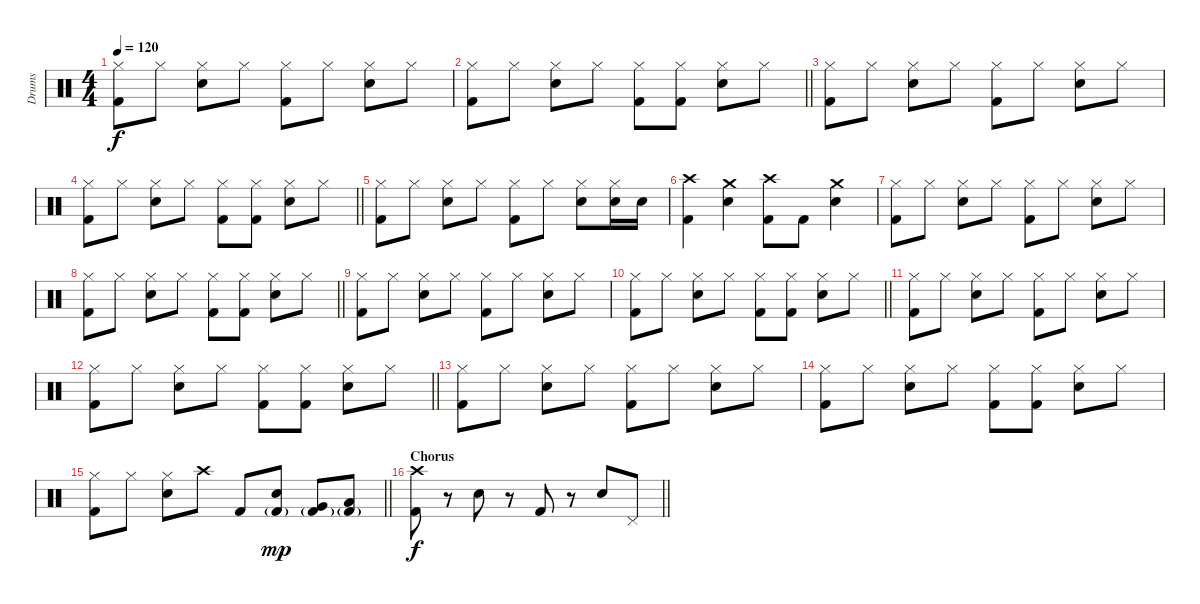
\track ("Drums" "Drums") {instrument percussion}
\staff {score}
\articulation defaults
\ts (4 4)
\tempo 120
\clef neutral
\ks c
("Hi-Hat (closed)" "Kick (hit) 2").8{dy f} "Hi-Hat (closed)".8 ("Hi-Hat (closed)" "Snare (hit) 2").8 "Hi-Hat (closed)".8 ("Hi-Hat (closed)" "Kick (hit) 2").8 "Hi-Hat (closed)".8 ("Hi-Hat (closed)" "Snare (hit) 2").8 "Hi-Hat (closed)".8 |
\barLineRight lightlight
("Hi-Hat (closed)" "Kick (hit) 2").8 "Hi-Hat (closed)".8 ("Hi-Hat (closed)" "Snare (hit) 2").8 "Hi-Hat (closed)".8 ("Hi-Hat (closed)" "Kick (hit) 2").8 ("Hi-Hat (closed)" "Kick (hit) 2").8 ("Hi-Hat (closed)" "Snare (hit) 2").8 "Hi-Hat (closed)".8 |
("Hi-Hat (closed)" "Kick (hit) 2").8 "Hi-Hat (closed)".8 ("Hi-Hat (closed)" "Snare (hit) 2").8 "Hi-Hat (closed)".8 ("Hi-Hat (closed)" "Kick (hit) 2").8 "Hi-Hat (closed)".8 ("Hi-Hat (closed)" "Snare (hit) 2").8 "Hi-Hat (closed)".8 |
\barLineRight lightlight
("Hi-Hat (closed)" "Kick (hit) 2").8 "Hi-Hat (closed)".8 ("Hi-Hat (closed)" "Snare (hit) 2").8 "Hi-Hat (closed)".8 ("Hi-Hat (closed)" "Kick (hit) 2").8 ("Hi-Hat (closed)" "Kick (hit) 2").8 ("Hi-Hat (closed)" "Snare (hit) 2").8 "Hi-Hat (closed)".8 |
("Hi-Hat (closed)" "Kick (hit) 2").8 "Hi-Hat (closed)".8 ("Hi-Hat (closed)" "Snare (hit) 2").8 "Hi-Hat (closed)".8 ("Hi-Hat (closed)" "Kick (hit) 2").8 "Hi-Hat (closed)".8 ("Hi-Hat (closed)" "Snare (hit) 2").8 ("Hi-Hat (closed)" "Snare (hit) 2").16 "Snare (hit) 2".16 |
("Crash high (hit)" "Kick (hit) 2").4 ("Crash medium (hit)" "Snare (hit) 2").4 ("Crash high (hit)" "Kick (hit) 2").8 "Kick (hit) 2".8 ("Crash medium (hit)" "Snare (hit) 2").4 |
("Hi-Hat (closed)" "Kick (hit) 2").8 "Hi-Hat (closed)".8 ("Hi-Hat (closed)" "Snare (hit) 2").8 "Hi-Hat (closed)".8 ("Hi-Hat (closed)" "Kick (hit) 2").8 "Hi-Hat (closed)".8 ("Hi-Hat (closed)" "Snare (hit) 2").8 "Hi-Hat (closed)".8 |
\barLineRight lightlight
("Hi-Hat (closed)" "Kick (hit) 2").8 "Hi-Hat (closed)".8 ("Hi-Hat (closed)" "Snare (hit) 2").8 "Hi-Hat (closed)".8 ("Hi-Hat (closed)" "Kick (hit) 2").8 ("Hi-Hat (closed)" "Kick (hit) 2").8 ("Hi-Hat (closed)" "Snare (hit) 2").8 "Hi-Hat (closed)".8 |
("Hi-Hat (closed)" "Kick (hit) 2").8 "Hi-Hat (closed)".8 ("Hi-Hat (closed)" "Snare (hit) 2").8 "Hi-Hat (closed)".8 ("Hi-Hat (closed)" "Kick (hit) 2").8 "Hi-Hat (closed)".8 ("Hi-Hat (closed)" "Snare (hit) 2").8 "Hi-Hat (closed)".8 |
\barLineRight lightlight
("Hi-Hat (closed)" "Kick (hit) 2").8 "Hi-Hat (closed)".8 ("Hi-Hat (closed)" "Snare (hit) 2").8 "Hi-Hat (closed)".8 ("Hi-Hat (closed)" "Kick (hit) 2").8 ("Hi-Hat (closed)" "Kick (hit) 2").8 ("Hi-Hat (closed)" "Snare (hit) 2").8 "Hi-Hat (closed)".8 |
("Hi-Hat (closed)" "Kick (hit) 2").8 "Hi-Hat (closed)".8 ("Hi-Hat (closed)" "Snare (hit) 2").8 "Hi-Hat (closed)".8 ("Hi-Hat (closed)" "Kick (hit) 2").8 "Hi-Hat (closed)".8 ("Hi-Hat (closed)" "Snare (hit) 2").8 "Hi-Hat (closed)".8 |
\barLineRight lightlight
("Hi-Hat (closed)" "Kick (hit) 2").8 "Hi-Hat (closed)".8 ("Hi-Hat (closed)" "Snare (hit) 2").8 "Hi-Hat (closed)".8 ("Hi-Hat (closed)" "Kick (hit) 2").8 ("Hi-Hat (closed)" "Kick (hit) 2").8 ("Hi-Hat (closed)" "Snare (hit) 2").8 "Hi-Hat (closed)".8 |
("Hi-Hat (closed)" "Kick (hit) 2").8 "Hi-Hat (closed)".8 ("Hi-Hat (closed)" "Snare (hit) 2").8 "Hi-Hat (closed)".8 ("Hi-Hat (closed)" "Kick (hit) 2").8 "Hi-Hat (closed)".8 ("Hi-Hat (closed)" "Snare (hit) 2").8 "Hi-Hat (closed)".8 |
("Hi-Hat (closed)" "Kick (hit) 2").8 "Hi-Hat (closed)".8 ("Hi-Hat (closed)" "Snare (hit) 2").8 "Hi-Hat (closed)".8 ("Hi-Hat (closed)" "Kick (hit) 2").8 ("Hi-Hat (closed)" "Kick (hit) 2").8 ("Hi-Hat (closed)" "Snare (hit) 2").8 "Hi-Hat (closed)".8 |
\barLineRight lightlight
("Hi-Hat (closed)" "Kick (hit) 2").8 "Hi-Hat (closed)".8 ("Hi-Hat (closed)" "Snare (hit) 2").8 "Crash high (hit)".8 "Kick (hit) 2".8 ("Snare (hit) 2" "Kick (hit) 2"{g}).8{dy mp} ("Very Low Tom (hit)" "Kick (hit) 2"{g}).8 ("Low Floor Tom (hit)" "Kick (hit) 2"{g}).8 |
\section ("" "Chorus")
\barLineRight lightlight
("Crash high (hit)" "Kick (hit) 2").8{dy f} r.8 "Snare (hit) 2".8 r.8 "Kick (hit) 2".8 r.8 "Snare (hit) 2".8 "Pedal Hi-Hat (hit)".8
